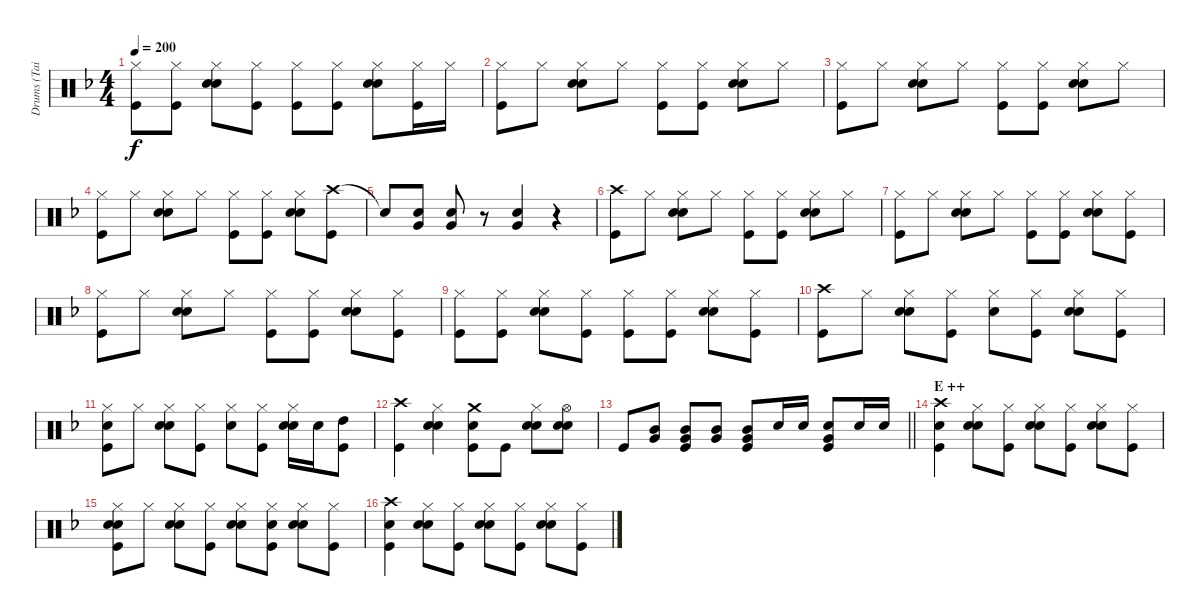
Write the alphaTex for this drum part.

\track ("Drums (Tainaka Ritsu)" "Drums (Tai") {instrument percussion}
\staff {score}
\articulation defaults
\ts (4 4)
\tempo 200
\clef neutral
\ks f
("Hi-Hat (closed)" "Kick (hit)").8{dy f} ("Hi-Hat (closed)" "Kick (hit)").8 ("Hi-Hat (closed)" "Hand Clap (hit)" "Snare (hit) 2").8 ("Hi-Hat (closed)" "Kick (hit)").8 ("Hi-Hat (closed)" "Kick (hit)").8 ("Hi-Hat (closed)" "Kick (hit)").8 ("Hi-Hat (closed)" "Hand Clap (hit)" "Snare (hit) 2").8 ("Hi-Hat (closed)" "Kick (hit)").16 "Hi-Hat (closed)".16 |
("Hi-Hat (closed)" "Kick (hit)").8 "Hi-Hat (closed)".8 ("Hi-Hat (closed)" "Hand Clap (hit)" "Snare (hit) 2").8 "Hi-Hat (closed)".8 ("Hi-Hat (closed)" "Kick (hit)").8 ("Hi-Hat (closed)" "Kick (hit)").8 ("Hi-Hat (closed)" "Hand Clap (hit)" "Snare (hit) 2").8 "Hi-Hat (closed)".8 |
("Hi-Hat (closed)" "Kick (hit)").8 "Hi-Hat (closed)".8 ("Hi-Hat (closed)" "Hand Clap (hit)" "Snare (hit) 2").8 "Hi-Hat (closed)".8 ("Hi-Hat (closed)" "Kick (hit)").8 ("Hi-Hat (closed)" "Kick (hit)").8 ("Hi-Hat (closed)" "Hand Clap (hit)" "Snare (hit) 2").8 "Hi-Hat (closed)".8 |
("Hi-Hat (closed)" "Kick (hit)").8 "Hi-Hat (closed)".8 ("Hi-Hat (closed)" "Hand Clap (hit)" "Snare (hit) 2").8 "Hi-Hat (closed)".8 ("Hi-Hat (closed)" "Kick (hit)").8 ("Hi-Hat (closed)" "Kick (hit)").8 ("Hi-Hat (closed)" "Hand Clap (hit)" "Snare (hit) 2").8 ("Crash high (hit)" "Kick (hit)").8 |
"Snare (hit)"{t}.8 ("Snare (hit) 2" "Very Low Tom (hit)").8 ("Snare (hit) 2" "Very Low Tom (hit)").8 r.8 ("Snare (hit) 2" "Very Low Tom (hit)").4 r.4 |
("Crash high (hit)" "Kick (hit)").8 "Hi-Hat (closed)".8 ("Hi-Hat (closed)" "Hand Clap (hit)" "Snare (hit) 2").8 "Hi-Hat (closed)".8 ("Hi-Hat (closed)" "Kick (hit)").8 ("Hi-Hat (closed)" "Kick (hit)").8 ("Hi-Hat (closed)" "Hand Clap (hit)" "Snare (hit) 2").8 "Hi-Hat (closed)".8 |
("Hi-Hat (closed)" "Kick (hit)").8 "Hi-Hat (closed)".8 ("Hi-Hat (closed)" "Hand Clap (hit)" "Snare (hit) 2").8 "Hi-Hat (closed)".8 ("Hi-Hat (closed)" "Kick (hit)").8 ("Hi-Hat (closed)" "Kick (hit)").8 ("Hi-Hat (closed)" "Hand Clap (hit)" "Snare (hit) 2").8 ("Hi-Hat (closed)" "Kick (hit)").8 |
("Hi-Hat (closed)" "Kick (hit)").8 "Hi-Hat (closed)".8 ("Hi-Hat (closed)" "Hand Clap (hit)" "Snare (hit) 2").8 "Hi-Hat (closed)".8 ("Hi-Hat (closed)" "Kick (hit)").8 ("Hi-Hat (closed)" "Kick (hit)").8 ("Hi-Hat (closed)" "Hand Clap (hit)" "Snare (hit) 2").8 ("Hi-Hat (closed)" "Kick (hit)").8 |
("Hi-Hat (closed)" "Kick (hit)").8 ("Hi-Hat (closed)" "Kick (hit)").8 ("Hi-Hat (closed)" "Hand Clap (hit)" "Snare (hit) 2").8 ("Hi-Hat (closed)" "Kick (hit)").8 ("Hi-Hat (closed)" "Kick (hit)").8 ("Hi-Hat (closed)" "Kick (hit)").8 ("Hi-Hat (closed)" "Hand Clap (hit)" "Snare (hit) 2").8 ("Hi-Hat (closed)" "Kick (hit)").8 |
("Crash high (hit)" "Kick (hit)").8 "Hi-Hat (closed)".8 ("Hi-Hat (closed)" "Hand Clap (hit)" "Snare (hit) 2").8 ("Hi-Hat (closed)" "Kick (hit)").8 ("Hi-Hat (closed)" "Snare (hit) 2").8 ("Hi-Hat (closed)" "Kick (hit)").8 ("Hi-Hat (closed)" "Hand Clap (hit)" "Snare (hit) 2").8 ("Hi-Hat (closed)" "Kick (hit)").8 |
("Hi-Hat (closed)" "Snare (hit) 2" "Kick (hit)").8 "Hi-Hat (closed)".8 ("Hi-Hat (closed)" "Hand Clap (hit)" "Snare (hit) 2").8 ("Hi-Hat (closed)" "Kick (hit)").8 ("Hi-Hat (closed)" "Snare (hit) 2").8 ("Hi-Hat (closed)" "Kick (hit)").8 ("Hi-Hat (closed)" "Hand Clap (hit)" "Snare (hit) 2").16 "Snare (hit) 2".16 ("High Tom (hit)" "Kick (hit)").8 |
("Crash high (hit)" "Kick (hit)").4 ("Hi-Hat (closed)" "Hand Clap (hit)" "Snare (hit) 2").4 ("Crash medium (hit)" "Hand Clap (hit)" "Kick (hit)").8 "Kick (hit)".8 ("Hi-Hat (closed)" "Hand Clap (hit)" "Snare (hit) 2").8 ("Hi-Hat (open)" "Hand Clap (hit)" "Snare (hit) 2").8 |
\barLineRight lightlight "Kick (hit)".8
("Mid Tom (hit)" "Very Low Tom (hit)").8 ("Mid Tom (hit)" "Very Low Tom (hit)" "Kick (hit)").8 ("Mid Tom (hit)" "Very Low Tom (hit)").8 ("Mid Tom (hit)" "Very Low Tom (hit)" "Kick (hit)").8 "Snare (hit) 2".16 "Snare (hit) 2".16 ("Snare (hit) 2" "Very Low Tom (hit)" "Kick (hit)").8 "Snare (hit) 2".16 "Snare (hit) 2".16 |
\section ("" "E ++")
("Crash high (hit)" "Hand Clap (hit)" "Kick (hit)").4 ("Hi-Hat (closed)" "Hand Clap (hit)" "Snare (hit) 2").8 ("Hi-Hat (closed)" "Kick (hit)").8 ("Hi-Hat (closed)" "Hand Clap (hit)" "Snare (hit) 2").8 ("Hi-Hat (closed)" "Kick (hit)").8 ("Hi-Hat (closed)" "Hand Clap (hit)" "Snare (hit) 2").8 ("Hi-Hat (closed)" "Kick (hit)").8 |
("Hi-Hat (closed)" "Hand Clap (hit)" "Snare (hit) 2" "Kick (hit)").8 "Hi-Hat (closed)".8 ("Hi-Hat (closed)" "Hand Clap (hit)" "Snare (hit) 2").8 ("Hi-Hat (closed)" "Kick (hit)").8 ("Hi-Hat (closed)" "Hand Clap (hit)" "Snare (hit) 2").8 ("Hi-Hat (closed)" "Hand Clap (hit)" "Kick (hit)").8 ("Hi-Hat (closed)" "Hand Clap (hit)" "Snare (hit) 2").8 ("Hi-Hat (closed)" "Kick (hit)").8 |
("Crash high (hit)" "Hand Clap (hit)" "Kick (hit)").4 ("Hi-Hat (closed)" "Hand Clap (hit)" "Snare (hit) 2").8 ("Hi-Hat (closed)" "Kick (hit)").8 ("Hi-Hat (closed)" "Hand Clap (hit)" "Snare (hit) 2").8 ("Hi-Hat (closed)" "Kick (hit)").8 ("Hi-Hat (closed)" "Hand Clap (hit)" "Snare (hit) 2").8 ("Hi-Hat (closed)" "Kick (hit)").8
